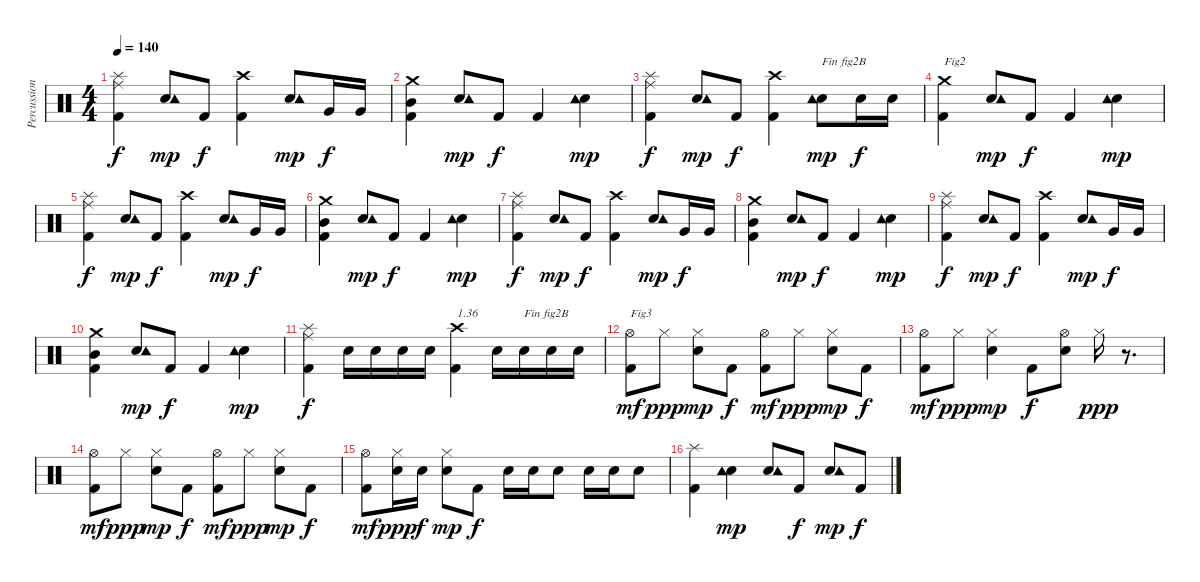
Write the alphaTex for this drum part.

\track ("Percussions" "Percussion") {instrument percussion}
\staff {score}
\articulation defaults
\ts (4 4)
\tempo 140
\clef neutral
\ks c
("Kick (hit) 2" "Ride (middle)" "Splash (hit)").4{dy f} ("Electric Snare (hit)" "Tambourine (hit)").8{dy mp} "Kick (hit) 2".8{dy f} ("Kick (hit) 2" "Crash high (hit)").4 ("Electric Snare (hit)" "Tambourine (hit)").8{dy mp} "Very Low Tom (hit)".16{dy f} "Very Low Tom (hit)".16 |
("Kick (hit) 2" "Mid Tom (hit)" "Crash medium (hit)").4 ("Electric Snare (hit)" "Tambourine (hit)").8{dy mp} "Kick (hit) 2".8{dy f} "Kick (hit) 2".4 ("Electric Snare (hit)" "Tambourine (hit)").4{dy mp} |
("Kick (hit) 2" "Ride (middle)" "Splash (hit)").4{dy f} ("Electric Snare (hit)" "Tambourine (hit)").8{dy mp} "Kick (hit) 2".8{dy f} ("Kick (hit) 2" "Crash high (hit)").4 ("Electric Snare (hit)" "Tambourine (hit)").8{txt "Fin fig2B" dy mp} "Electric Snare (hit)".16{dy f} "Electric Snare (hit)".16 |
("Kick (hit) 2" "Crash medium (hit)").4{txt "Fig2"} ("Electric Snare (hit)" "Tambourine (hit)").8{dy mp} "Kick (hit) 2".8{dy f} "Kick (hit) 2".4 ("Electric Snare (hit)" "Tambourine (hit)").4{dy mp} |
("Kick (hit) 2" "Ride (middle)" "Splash (hit)").4{dy f} ("Electric Snare (hit)" "Tambourine (hit)").8{dy mp} "Kick (hit) 2".8{dy f} ("Kick (hit) 2" "Crash high (hit)").4 ("Electric Snare (hit)" "Tambourine (hit)").8{dy mp} "Very Low Tom (hit)".16{dy f} "Very Low Tom (hit)".16 |
("Kick (hit) 2" "Mid Tom (hit)" "Crash medium (hit)").4 ("Electric Snare (hit)" "Tambourine (hit)").8{dy mp} "Kick (hit) 2".8{dy f} "Kick (hit) 2".4 ("Electric Snare (hit)" "Tambourine (hit)").4{dy mp} |
("Kick (hit) 2" "Ride (middle)" "Splash (hit)").4{dy f} ("Electric Snare (hit)" "Tambourine (hit)").8{dy mp} "Kick (hit) 2".8{dy f} ("Kick (hit) 2" "Crash high (hit)").4 ("Electric Snare (hit)" "Tambourine (hit)").8{dy mp} "Very Low Tom (hit)".16{dy f} "Very Low Tom (hit)".16 |
("Kick (hit) 2" "Mid Tom (hit)" "Crash medium (hit)").4 ("Electric Snare (hit)" "Tambourine (hit)").8{dy mp} "Kick (hit) 2".8{dy f} "Kick (hit) 2".4 ("Electric Snare (hit)" "Tambourine (hit)").4{dy mp} |
("Kick (hit) 2" "Ride (middle)" "Splash (hit)").4{dy f} ("Electric Snare (hit)" "Tambourine (hit)").8{dy mp} "Kick (hit) 2".8{dy f} ("Kick (hit) 2" "Crash high (hit)").4 ("Electric Snare (hit)" "Tambourine (hit)").8{dy mp} "Very Low Tom (hit)".16{dy f} "Very Low Tom (hit)".16 |
("Kick (hit) 2" "Mid Tom (hit)" "Crash medium (hit)").4 ("Electric Snare (hit)" "Tambourine (hit)").8{dy mp} "Kick (hit) 2".8{dy f} "Kick (hit) 2".4 ("Electric Snare (hit)" "Tambourine (hit)").4{dy mp} |
("Kick (hit) 2" "Ride (middle)" "Splash (hit)").4{dy f} "Electric Snare (hit)".16 "Electric Snare (hit)".16 "Electric Snare (hit)".16 "Electric Snare (hit)".16 ("Kick (hit) 2" "Crash high (hit)").4{txt "1.36"} "Electric Snare (hit)".16 "Electric Snare (hit)".16{txt "Fin fig2B"} "Electric Snare (hit)".16 "Electric Snare (hit)".16 |
("Kick (hit) 2" "Hi-Hat (open)").8{txt "Fig3" dy mf} "Hi-Hat (closed)".8{dy ppp} ("Electric Snare (hit)" "Hi-Hat (closed)").8{dy mp} "Kick (hit) 2".8{dy f} ("Kick (hit) 2" "Hi-Hat (open)").8{dy mf} "Hi-Hat (closed)".8{dy ppp} ("Electric Snare (hit)" "Hi-Hat (closed)").8{dy mp} "Kick (hit) 2".8{dy f} |
("Kick (hit) 2" "Hi-Hat (open)").8{dy mf} "Hi-Hat (closed)".8{dy ppp} ("Electric Snare (hit)" "Hi-Hat (closed)").4{dy mp} "Kick (hit) 2".8{dy f} ("Electric Snare (hit)" "Hi-Hat (open)").8 "Hi-Hat (closed)".16{dy ppp} r.8{d} |
("Kick (hit) 2" "Hi-Hat (open)").8{dy mf} "Hi-Hat (closed)".8{dy ppp} ("Electric Snare (hit)" "Hi-Hat (closed)").8{dy mp} "Kick (hit) 2".8{dy f} ("Kick (hit) 2" "Hi-Hat (open)").8{dy mf} "Hi-Hat (closed)".8{dy ppp} ("Electric Snare (hit)" "Hi-Hat (closed)").8{dy mp} "Kick (hit) 2".8{dy f} |
("Kick (hit) 2" "Hi-Hat (open)").8{dy mf} ("Electric Snare (hit)" "Hi-Hat (closed)").16{dy ppp} "Electric Snare (hit)".16{dy f} ("Electric Snare (hit)" "Hi-Hat (closed)").8{dy mp} "Kick (hit) 2".8{dy f} "Electric Snare (hit)".16 "Electric Snare (hit)".16 "Electric Snare (hit)".8 "Electric Snare (hit)".16 "Electric Snare (hit)".16 "Electric Snare (hit)".8 |
("Kick (hit) 2" "Splash (hit)").4 ("Electric Snare (hit)" "Tambourine (hit)").4{dy mp} ("Electric Snare (hit)" "Tambourine (hit)").8 "Kick (hit) 2".8{dy f} ("Electric Snare (hit)" "Tambourine (hit)").8{dy mp} "Kick (hit) 2".8{dy f}
